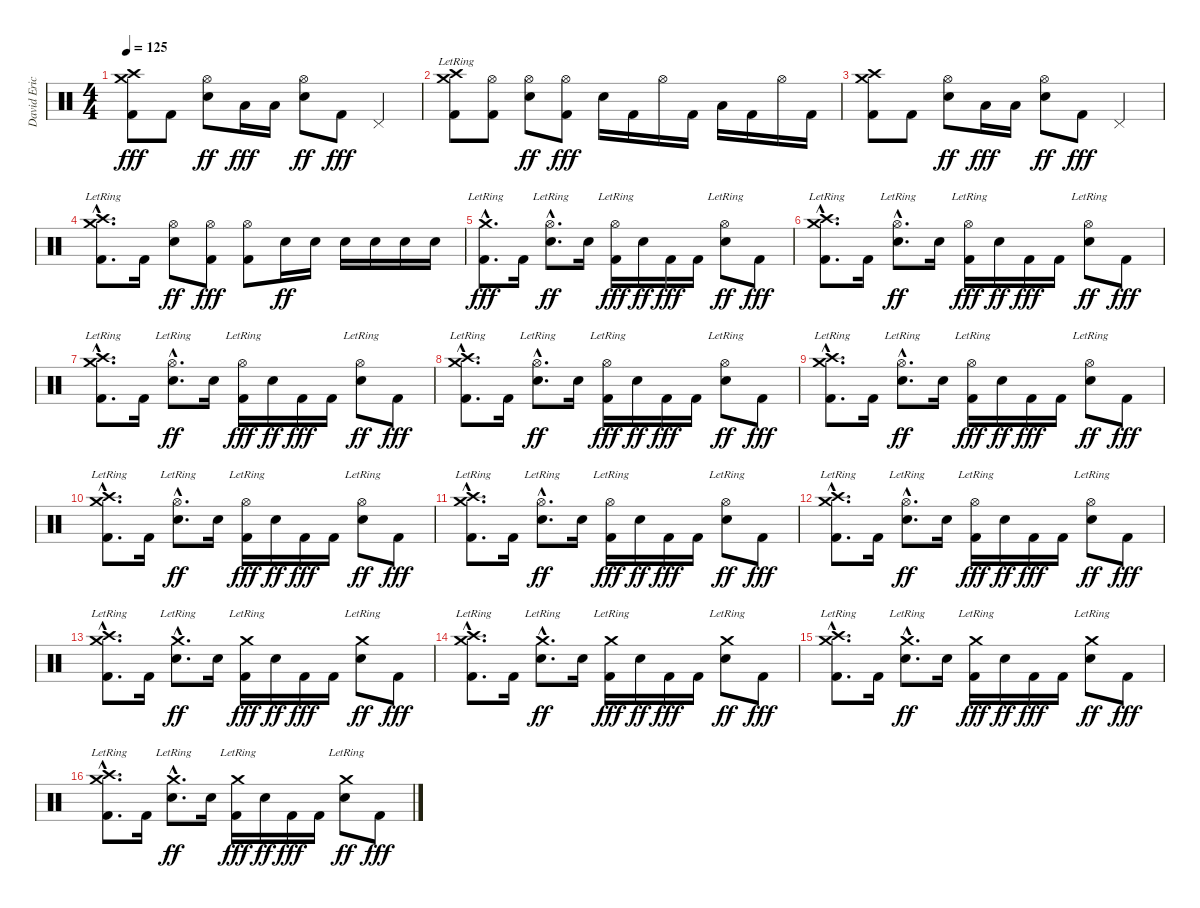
\track ("David Eric Grohl" "David Eric") {instrument percussion}
\staff {score}
\articulation defaults
\ts (4 4)
\tempo 125
\clef neutral
\ks c
("Crash medium (hit)" "Crash high (hit)" "Kick (hit) 2").8{dy fff} "Kick (hit) 2".8 ("Hi-Hat (open)" "Electric Snare (hit)").8{dy ff} "Low Tom (hit)".16{dy fff} "Low Tom (hit)".16 ("Hi-Hat (open)" "Electric Snare (hit)").8{dy ff} "Kick (hit) 2".8{dy fff} "Pedal Hi-Hat (hit)".4 |
("Crash medium (hit)"{lr} "Crash high (hit)"{lr} "Kick (hit) 2").8 ("Hi-Hat (open)" "Kick (hit) 2").8 ("Hi-Hat (open)" "Electric Snare (hit)").8{dy ff} ("Hi-Hat (open)" "Kick (hit) 2").8{dy fff} "Electric Snare (hit)".16 "Kick (hit) 2".16 "Hi-Hat (open)".16 "Kick (hit) 2".16 "Low Tom (hit)".16 "Kick (hit) 2".16 "Hi-Hat (open)".16 "Kick (hit) 2".16 |
("Crash medium (hit)" "Crash high (hit)" "Kick (hit) 2").8 "Kick (hit) 2".8 ("Hi-Hat (open)" "Electric Snare (hit)").8{dy ff} "Low Tom (hit)".16{dy fff} "Low Tom (hit)".16 ("Hi-Hat (open)" "Electric Snare (hit)").8{dy ff} "Kick (hit) 2".8{dy fff} "Pedal Hi-Hat (hit)".4 |
("Crash medium (hit)"{hac lr} "Crash high (hit)"{hac lr} "Kick (hit) 2"{hac}).8{d} "Kick (hit) 2".16 ("Hi-Hat (open)" "Electric Snare (hit)").8{dy ff} ("Hi-Hat (open)" "Kick (hit) 2").8{dy fff} ("Hi-Hat (open)" "Kick (hit) 2").8 "Electric Snare (hit)".16{dy ff} "Electric Snare (hit)".16 "Electric Snare (hit)".16 "Electric Snare (hit)".16 "Electric Snare (hit)".16 "Electric Snare (hit)".16 |
("Crash medium (hit)"{hac lr} "Kick (hit) 2"{hac}).8{d dy fff} "Kick (hit) 2".16 ("Hi-Hat (open)"{hac lr} "Electric Snare (hit)"{hac}).8{d dy ff} "Electric Snare (hit)".16 ("Hi-Hat (open)"{lr} "Kick (hit) 2").16{dy fff} "Electric Snare (hit)".16{dy ff} "Kick (hit) 2".16{dy fff} "Kick (hit) 2".16 ("Hi-Hat (open)"{lr} "Electric Snare (hit)").8{dy ff} "Kick (hit) 2".8{dy fff} |
("Crash medium (hit)"{hac lr} "Crash high (hit)"{hac lr} "Kick (hit) 2"{hac}).8{d} "Kick (hit) 2".16 ("Hi-Hat (open)"{hac lr} "Electric Snare (hit)"{hac}).8{d dy ff} "Electric Snare (hit)".16 ("Hi-Hat (open)"{lr} "Kick (hit) 2").16{dy fff} "Electric Snare (hit)".16{dy ff} "Kick (hit) 2".16{dy fff} "Kick (hit) 2".16 ("Hi-Hat (open)"{lr} "Electric Snare (hit)").8{dy ff} "Kick (hit) 2".8{dy fff} |
("Crash medium (hit)"{hac lr} "Crash high (hit)"{hac lr} "Kick (hit) 2"{hac}).8{d} "Kick (hit) 2".16 ("Hi-Hat (open)"{hac lr} "Electric Snare (hit)"{hac}).8{d dy ff} "Electric Snare (hit)".16 ("Hi-Hat (open)"{lr} "Kick (hit) 2").16{dy fff} "Electric Snare (hit)".16{dy ff} "Kick (hit) 2".16{dy fff} "Kick (hit) 2".16 ("Hi-Hat (open)"{lr} "Electric Snare (hit)").8{dy ff} "Kick (hit) 2".8{dy fff} |
("Crash medium (hit)"{hac lr} "Crash high (hit)"{hac lr} "Kick (hit) 2"{hac}).8{d} "Kick (hit) 2".16 ("Hi-Hat (open)"{hac lr} "Electric Snare (hit)"{hac}).8{d dy ff} "Electric Snare (hit)".16 ("Hi-Hat (open)"{lr} "Kick (hit) 2").16{dy fff} "Electric Snare (hit)".16{dy ff} "Kick (hit) 2".16{dy fff} "Kick (hit) 2".16 ("Hi-Hat (open)"{lr} "Electric Snare (hit)").8{dy ff} "Kick (hit) 2".8{dy fff} |
("Crash medium (hit)"{hac lr} "Crash high (hit)"{hac lr} "Kick (hit) 2"{hac}).8{d} "Kick (hit) 2".16 ("Hi-Hat (open)"{hac lr} "Electric Snare (hit)"{hac}).8{d dy ff} "Electric Snare (hit)".16 ("Hi-Hat (open)"{lr} "Kick (hit) 2").16{dy fff} "Electric Snare (hit)".16{dy ff} "Kick (hit) 2".16{dy fff} "Kick (hit) 2".16 ("Hi-Hat (open)"{lr} "Electric Snare (hit)").8{dy ff} "Kick (hit) 2".8{dy fff} |
("Crash medium (hit)"{hac lr} "Crash high (hit)"{hac lr} "Kick (hit) 2"{hac}).8{d} "Kick (hit) 2".16 ("Hi-Hat (open)"{hac lr} "Electric Snare (hit)"{hac}).8{d dy ff} "Electric Snare (hit)".16 ("Hi-Hat (open)"{lr} "Kick (hit) 2").16{dy fff} "Electric Snare (hit)".16{dy ff} "Kick (hit) 2".16{dy fff} "Kick (hit) 2".16 ("Hi-Hat (open)"{lr} "Electric Snare (hit)").8{dy ff} "Kick (hit) 2".8{dy fff} |
("Crash medium (hit)"{hac lr} "Crash high (hit)"{hac lr} "Kick (hit) 2"{hac}).8{d} "Kick (hit) 2".16 ("Hi-Hat (open)"{hac lr} "Electric Snare (hit)"{hac}).8{d dy ff} "Electric Snare (hit)".16 ("Hi-Hat (open)"{lr} "Kick (hit) 2").16{dy fff} "Electric Snare (hit)".16{dy ff} "Kick (hit) 2".16{dy fff} "Kick (hit) 2".16 ("Hi-Hat (open)"{lr} "Electric Snare (hit)").8{dy ff} "Kick (hit) 2".8{dy fff} |
("Crash medium (hit)"{hac lr} "Crash high (hit)"{hac lr} "Kick (hit) 2"{hac}).8{d} "Kick (hit) 2".16 ("Hi-Hat (open)"{hac lr} "Electric Snare (hit)"{hac}).8{d dy ff} "Electric Snare (hit)".16 ("Hi-Hat (open)"{lr} "Kick (hit) 2").16{dy fff} "Electric Snare (hit)".16{dy ff} "Kick (hit) 2".16{dy fff} "Kick (hit) 2".16 ("Hi-Hat (open)"{lr} "Electric Snare (hit)").8{dy ff} "Kick (hit) 2".8{dy fff} |
("Crash medium (hit)"{hac lr} "Crash high (hit)"{hac lr} "Kick (hit) 2"{hac}).8{d} "Kick (hit) 2".16 ("Crash medium (hit)"{hac lr} "Electric Snare (hit)"{hac}).8{d dy ff} "Electric Snare (hit)".16 ("Crash medium (hit)"{lr} "Kick (hit) 2").16{dy fff} "Electric Snare (hit)".16{dy ff} "Kick (hit) 2".16{dy fff} "Kick (hit) 2".16 ("Crash medium (hit)"{lr} "Electric Snare (hit)").8{dy ff} "Kick (hit) 2".8{dy fff} |
("Crash medium (hit)"{hac lr} "Crash high (hit)"{hac lr} "Kick (hit) 2"{hac}).8{d} "Kick (hit) 2".16 ("Crash medium (hit)"{hac lr} "Electric Snare (hit)"{hac}).8{d dy ff} "Electric Snare (hit)".16 ("Crash medium (hit)"{lr} "Kick (hit) 2").16{dy fff} "Electric Snare (hit)".16{dy ff} "Kick (hit) 2".16{dy fff} "Kick (hit) 2".16 ("Crash medium (hit)"{lr} "Electric Snare (hit)").8{dy ff} "Kick (hit) 2".8{dy fff} |
("Crash medium (hit)"{hac lr} "Crash high (hit)"{hac lr} "Kick (hit) 2"{hac}).8{d} "Kick (hit) 2".16 ("Crash medium (hit)"{hac lr} "Electric Snare (hit)"{hac}).8{d dy ff} "Electric Snare (hit)".16 ("Crash medium (hit)"{lr} "Kick (hit) 2").16{dy fff} "Electric Snare (hit)".16{dy ff} "Kick (hit) 2".16{dy fff} "Kick (hit) 2".16 ("Crash medium (hit)"{lr} "Electric Snare (hit)").8{dy ff} "Kick (hit) 2".8{dy fff} |
("Crash medium (hit)"{hac lr} "Crash high (hit)"{hac lr} "Kick (hit) 2"{hac}).8{d} "Kick (hit) 2".16 ("Crash medium (hit)"{hac lr} "Electric Snare (hit)"{hac}).8{d dy ff} "Electric Snare (hit)".16 ("Crash medium (hit)"{lr} "Kick (hit) 2").16{dy fff} "Electric Snare (hit)".16{dy ff} "Kick (hit) 2".16{dy fff} "Kick (hit) 2".16 ("Crash medium (hit)"{lr} "Electric Snare (hit)").8{dy ff} "Kick (hit) 2".8{dy fff}
